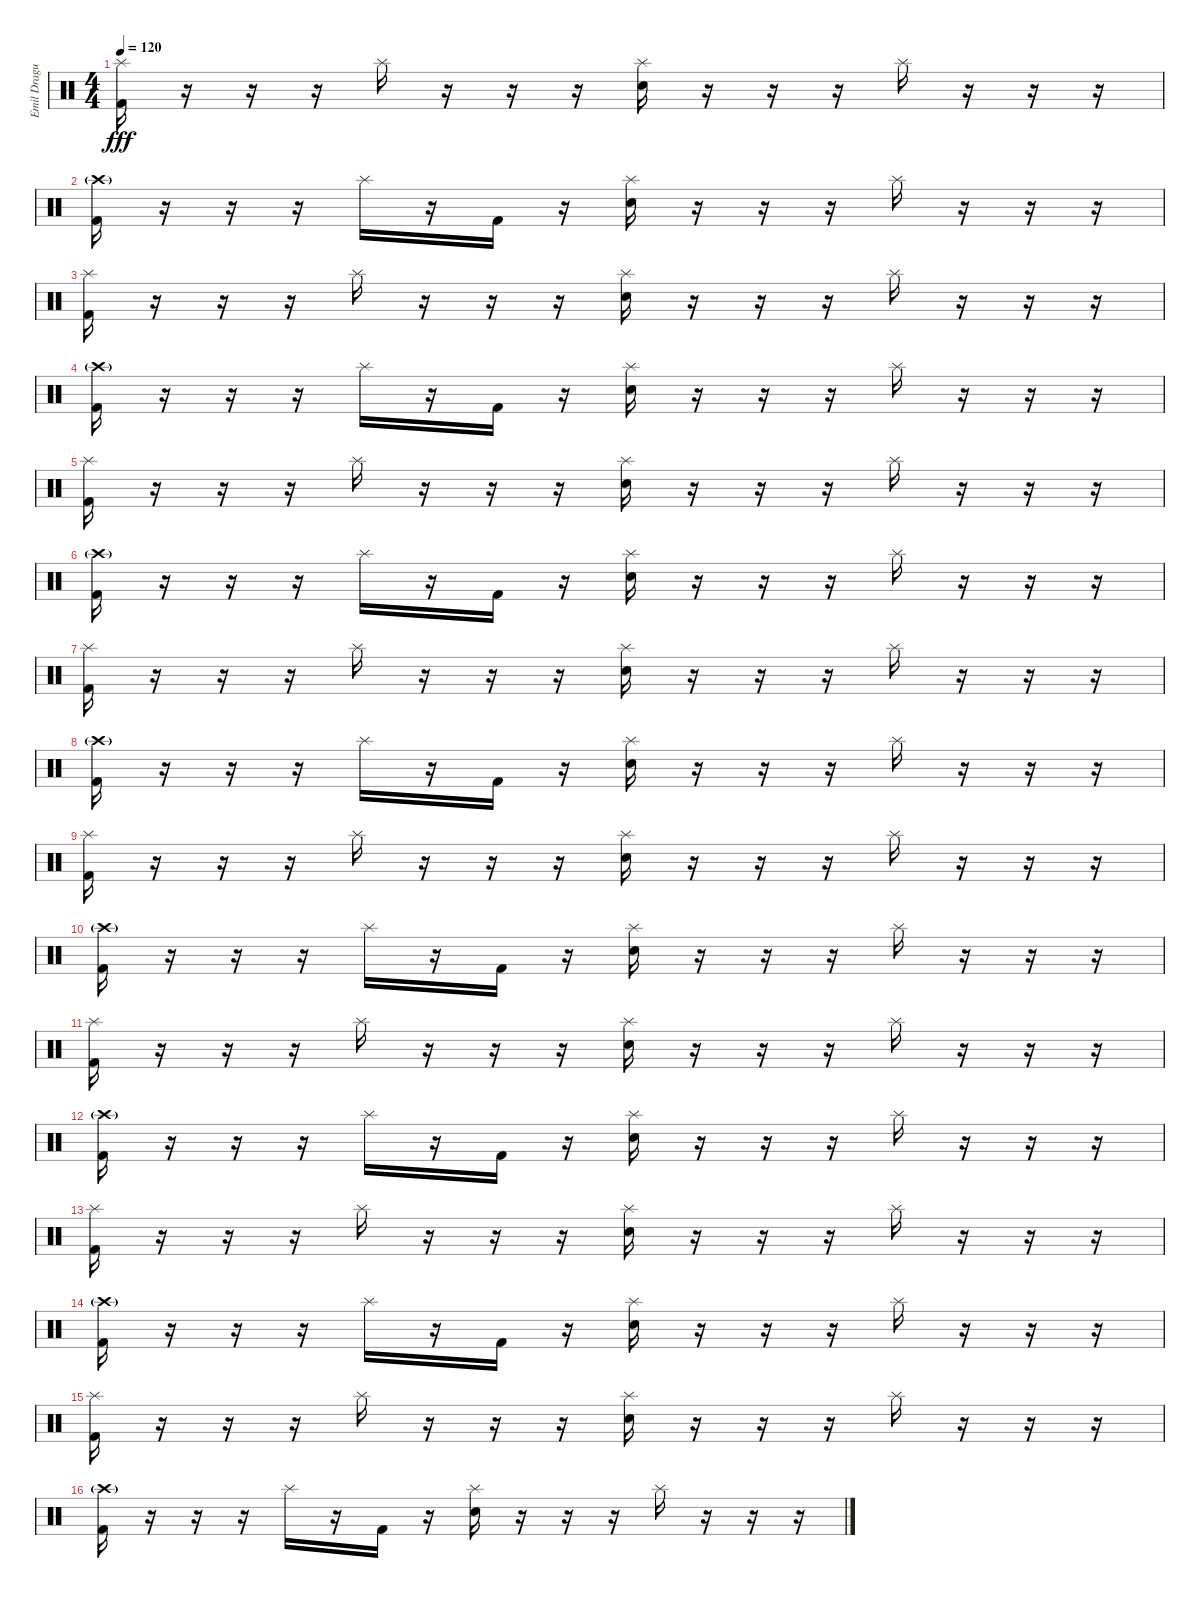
\track ("Emil Dragutinovic" "Emil Dragu") {instrument percussion}
\staff {score}
\articulation defaults
\ts (4 4)
\tempo 120
\clef neutral
\ks c
("Splash (hit)" "Kick (hit) 2").16{dy fff} r.16 r.16 r.16 "Splash (hit)".16 r.16 r.16 r.16 ("Splash (hit)" "Electric Snare (hit)").16 r.16 r.16 r.16 "Splash (hit)".16 r.16 r.16 r.16 |
("Crash high (hit)"{g} "Kick (hit) 2").16 r.16 r.16 r.16 "Splash (hit)".16 r.16 "Kick (hit) 2".16 r.16 ("Splash (hit)" "Electric Snare (hit)").16 r.16 r.16 r.16 "Splash (hit)".16 r.16 r.16 r.16 |
("Splash (hit)" "Kick (hit) 2").16 r.16 r.16 r.16 "Splash (hit)".16 r.16 r.16 r.16 ("Splash (hit)" "Electric Snare (hit)").16 r.16 r.16 r.16 "Splash (hit)".16 r.16 r.16 r.16 |
("Crash high (hit)"{g} "Kick (hit) 2").16 r.16 r.16 r.16 "Splash (hit)".16 r.16 "Kick (hit) 2".16 r.16 ("Splash (hit)" "Electric Snare (hit)").16 r.16 r.16 r.16 "Splash (hit)".16 r.16 r.16 r.16 |
("Splash (hit)" "Kick (hit) 2").16 r.16 r.16 r.16 "Splash (hit)".16 r.16 r.16 r.16 ("Splash (hit)" "Electric Snare (hit)").16 r.16 r.16 r.16 "Splash (hit)".16 r.16 r.16 r.16 |
("Crash high (hit)"{g} "Kick (hit) 2").16 r.16 r.16 r.16 "Splash (hit)".16 r.16 "Kick (hit) 2".16 r.16 ("Splash (hit)" "Electric Snare (hit)").16 r.16 r.16 r.16 "Splash (hit)".16 r.16 r.16 r.16 |
("Splash (hit)" "Kick (hit) 2").16 r.16 r.16 r.16 "Splash (hit)".16 r.16 r.16 r.16 ("Splash (hit)" "Electric Snare (hit)").16 r.16 r.16 r.16 "Splash (hit)".16 r.16 r.16 r.16 |
("Crash high (hit)"{g} "Kick (hit) 2").16 r.16 r.16 r.16 "Splash (hit)".16 r.16 "Kick (hit) 2".16 r.16 ("Splash (hit)" "Electric Snare (hit)").16 r.16 r.16 r.16 "Splash (hit)".16 r.16 r.16 r.16 |
("Splash (hit)" "Kick (hit) 2").16 r.16 r.16 r.16 "Splash (hit)".16 r.16 r.16 r.16 ("Splash (hit)" "Electric Snare (hit)").16 r.16 r.16 r.16 "Splash (hit)".16 r.16 r.16 r.16 |
("Crash high (hit)"{g} "Kick (hit) 2").16 r.16 r.16 r.16 "Splash (hit)".16 r.16 "Kick (hit) 2".16 r.16 ("Splash (hit)" "Electric Snare (hit)").16 r.16 r.16 r.16 "Splash (hit)".16 r.16 r.16 r.16 |
("Splash (hit)" "Kick (hit) 2").16 r.16 r.16 r.16 "Splash (hit)".16 r.16 r.16 r.16 ("Splash (hit)" "Electric Snare (hit)").16 r.16 r.16 r.16 "Splash (hit)".16 r.16 r.16 r.16 |
("Crash high (hit)"{g} "Kick (hit) 2").16 r.16 r.16 r.16 "Splash (hit)".16 r.16 "Kick (hit) 2".16 r.16 ("Splash (hit)" "Electric Snare (hit)").16 r.16 r.16 r.16 "Splash (hit)".16 r.16 r.16 r.16 |
("Splash (hit)" "Kick (hit) 2").16 r.16 r.16 r.16 "Splash (hit)".16 r.16 r.16 r.16 ("Splash (hit)" "Electric Snare (hit)").16 r.16 r.16 r.16 "Splash (hit)".16 r.16 r.16 r.16 |
("Crash high (hit)"{g} "Kick (hit) 2").16 r.16 r.16 r.16 "Splash (hit)".16 r.16 "Kick (hit) 2".16 r.16 ("Splash (hit)" "Electric Snare (hit)").16 r.16 r.16 r.16 "Splash (hit)".16 r.16 r.16 r.16 |
("Splash (hit)" "Kick (hit) 2").16 r.16 r.16 r.16 "Splash (hit)".16 r.16 r.16 r.16 ("Splash (hit)" "Electric Snare (hit)").16 r.16 r.16 r.16 "Splash (hit)".16 r.16 r.16 r.16 |
("Crash high (hit)"{g} "Kick (hit) 2").16 r.16 r.16 r.16 "Splash (hit)".16 r.16 "Kick (hit) 2".16 r.16 ("Splash (hit)" "Electric Snare (hit)").16 r.16 r.16 r.16 "Splash (hit)".16 r.16 r.16 r.16
